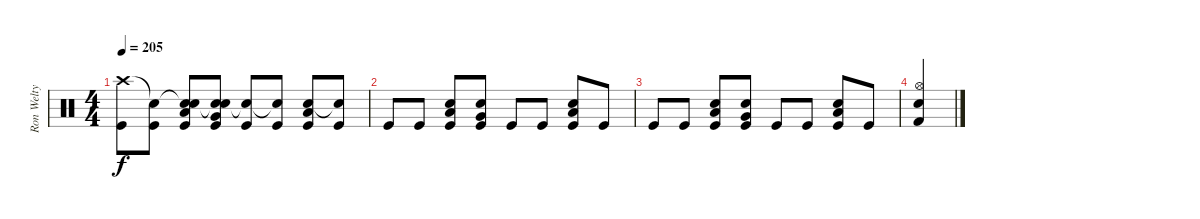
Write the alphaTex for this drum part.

\track ("Ron Welty" "Ron Welty") {instrument percussion}
\staff {score}
\articulation defaults
\ts (4 4)
\tempo 205
\clef neutral
\ks c
("Crash high (hit)" "Kick (hit)").8{dy f} ("Snare (hit)"{t} "Kick (hit)").8 ("Snare (hit)"{t} "Electric Snare (hit)" "Low Tom (hit)" "Kick (hit)").8 ("Snare (hit)"{t} "Electric Snare (hit)" "Very Low Tom (hit)" "Kick (hit)").8 ("Snare (hit)"{t} "Kick (hit)").8 ("Snare (hit)"{t} "Kick (hit)").8 ("Electric Snare (hit)" "Low Tom (hit)" "Kick (hit)").8 ("Snare (hit)"{t} "Kick (hit)").8 |
"Kick (hit)".8 "Kick (hit)".8 ("Electric Snare (hit)" "Low Tom (hit)" "Kick (hit)").8 ("Electric Snare (hit)" "Very Low Tom (hit)" "Kick (hit)").8 "Kick (hit)".8 "Kick (hit)".8 ("Electric Snare (hit)" "Low Tom (hit)" "Kick (hit)").8 "Kick (hit)".8 |
"Kick (hit)".8 "Kick (hit)".8 ("Electric Snare (hit)" "Low Tom (hit)" "Kick (hit)").8 ("Electric Snare (hit)" "Very Low Tom (hit)" "Kick (hit)").8 "Kick (hit)".8 "Kick (hit)".8 ("Electric Snare (hit)" "Low Tom (hit)" "Kick (hit)").8 "Kick (hit)".8 |
("Hi-Hat (open)" "Electric Snare (hit)" "Kick (hit) 2").4
